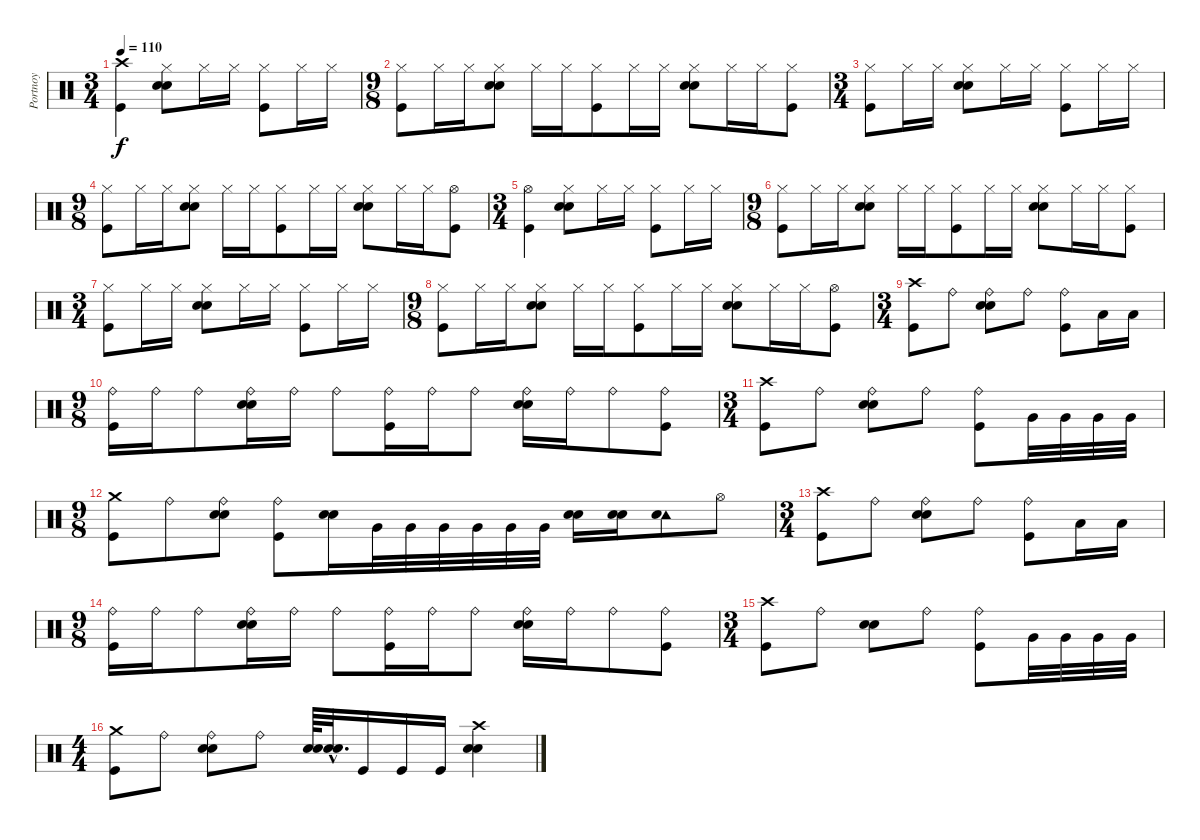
\track ("Portnoy" "Portnoy") {instrument percussion}
\staff {score}
\articulation defaults
\ts (3 4)
\tempo 110
\clef neutral
\ks c
("Crash high (hit)" "Kick (hit)").4{dy f} ("Hi-Hat (closed)" "Snare (hit) 2" "Electric Snare (hit)").8 "Hi-Hat (closed)".16 "Hi-Hat (closed)".16 ("Hi-Hat (closed)" "Kick (hit)").8 "Hi-Hat (closed)".16 "Hi-Hat (closed)".16 |
\ts (9 8)
("Hi-Hat (closed)" "Kick (hit)").8 "Hi-Hat (closed)".16 "Hi-Hat (closed)".16 ("Hi-Hat (closed)" "Snare (hit) 2" "Electric Snare (hit)").8 "Hi-Hat (closed)".16 "Hi-Hat (closed)".16 ("Hi-Hat (closed)" "Kick (hit)").8 "Hi-Hat (closed)".16 "Hi-Hat (closed)".16 ("Hi-Hat (closed)" "Snare (hit) 2" "Electric Snare (hit)").8 "Hi-Hat (closed)".16 "Hi-Hat (closed)".16 ("Hi-Hat (closed)" "Kick (hit)").8 |
\ts (3 4)
("Hi-Hat (closed)" "Kick (hit)").8 "Hi-Hat (closed)".16 "Hi-Hat (closed)".16 ("Hi-Hat (closed)" "Snare (hit) 2" "Electric Snare (hit)").8 "Hi-Hat (closed)".16 "Hi-Hat (closed)".16 ("Hi-Hat (closed)" "Kick (hit)").8 "Hi-Hat (closed)".16 "Hi-Hat (closed)".16 |
\ts (9 8)
("Hi-Hat (closed)" "Kick (hit)").8 "Hi-Hat (closed)".16 "Hi-Hat (closed)".16 ("Hi-Hat (closed)" "Snare (hit) 2" "Electric Snare (hit)").8 "Hi-Hat (closed)".16 "Hi-Hat (closed)".16 ("Hi-Hat (closed)" "Kick (hit)").8 "Hi-Hat (closed)".16 "Hi-Hat (closed)".16 ("Hi-Hat (closed)" "Snare (hit) 2" "Electric Snare (hit)").8 "Hi-Hat (closed)".16 "Hi-Hat (closed)".16 ("Hi-Hat (open)" "Kick (hit)").8 |
\ts (3 4)
("Hi-Hat (open)" "Kick (hit)").4 ("Hi-Hat (closed)" "Snare (hit) 2" "Electric Snare (hit)").8 "Hi-Hat (closed)".16 "Hi-Hat (closed)".16 ("Hi-Hat (closed)" "Kick (hit)").8 "Hi-Hat (closed)".16 "Hi-Hat (closed)".16 |
\ts (9 8)
("Hi-Hat (closed)" "Kick (hit)").8 "Hi-Hat (closed)".16 "Hi-Hat (closed)".16 ("Hi-Hat (closed)" "Snare (hit) 2" "Electric Snare (hit)").8 "Hi-Hat (closed)".16 "Hi-Hat (closed)".16 ("Hi-Hat (closed)" "Kick (hit)").8 "Hi-Hat (closed)".16 "Hi-Hat (closed)".16 ("Hi-Hat (closed)" "Snare (hit) 2" "Electric Snare (hit)").8 "Hi-Hat (closed)".16 "Hi-Hat (closed)".16 ("Hi-Hat (closed)" "Kick (hit)").8 |
\ts (3 4)
("Hi-Hat (closed)" "Kick (hit)").8 "Hi-Hat (closed)".16 "Hi-Hat (closed)".16 ("Hi-Hat (closed)" "Snare (hit) 2" "Electric Snare (hit)").8 "Hi-Hat (closed)".16 "Hi-Hat (closed)".16 ("Hi-Hat (closed)" "Kick (hit)").8 "Hi-Hat (closed)".16 "Hi-Hat (closed)".16 |
\ts (9 8)
("Hi-Hat (closed)" "Kick (hit)").8 "Hi-Hat (closed)".16 "Hi-Hat (closed)".16 ("Hi-Hat (closed)" "Snare (hit) 2" "Electric Snare (hit)").8 "Hi-Hat (closed)".16 "Hi-Hat (closed)".16 ("Hi-Hat (closed)" "Kick (hit)").8 "Hi-Hat (closed)".16 "Hi-Hat (closed)".16 ("Hi-Hat (closed)" "Snare (hit) 2" "Electric Snare (hit)").8 "Hi-Hat (closed)".16 "Hi-Hat (closed)".16 ("Hi-Hat (open)" "Kick (hit)").8 |
\ts (3 4)
("Crash high (hit)" "Kick (hit)").8 "Ride (bell)".8 ("Ride (bell)" "Snare (hit) 2" "Electric Snare (hit)").8 "Ride (bell)".8 ("Ride (bell)" "Kick (hit)").8 "Low Tom (hit)".16 "Low Tom (hit)".16 |
\ts (9 8)
("Ride (bell)" "Kick (hit)").16 "Ride (bell)".16 "Ride (bell)".8 ("Ride (bell)" "Snare (hit) 2" "Electric Snare (hit)").16 "Ride (bell)".16 "Ride (bell)".8 ("Ride (bell)" "Kick (hit)").16 "Ride (bell)".16 "Ride (bell)".8 ("Ride (bell)" "Snare (hit) 2" "Electric Snare (hit)").16 "Ride (bell)".16 "Ride (bell)".8 ("Ride (bell)" "Kick (hit)").8 |
\ts (3 4)
("Crash high (hit)" "Kick (hit)").8 "Ride (bell)".8 ("Ride (bell)" "Snare (hit) 2" "Electric Snare (hit)").8 "Ride (bell)".8 ("Ride (bell)" "Kick (hit)").8 "Very Low Tom (hit)".32 "Very Low Tom (hit)".32 "Very Low Tom (hit)".32 "Very Low Tom (hit)".32 |
\ts (9 8)
("Crash medium (hit)" "Kick (hit)").8 "Ride (bell)".8 ("Ride (bell)" "Snare (hit) 2" "Electric Snare (hit)").8 ("Ride (bell)" "Kick (hit)").8 ("Snare (hit) 2" "Electric Snare (hit)").16 "Very Low Tom (hit)".32 "Very Low Tom (hit)".32 "Very Low Tom (hit)".32 "Very Low Tom (hit)".32 "Very Low Tom (hit)".32 "Very Low Tom (hit)".32 ("Snare (hit) 2" "Electric Snare (hit)").16 ("Snare (hit) 2" "Electric Snare (hit)").16 ("Tambourine (hit)" "Metronome (bell)").8 "Hi-Hat (open)".8 |
\ts (3 4)
("Crash high (hit)" "Kick (hit)").8 "Ride (bell)".8 ("Ride (bell)" "Snare (hit) 2" "Electric Snare (hit)").8 "Ride (bell)".8 ("Ride (bell)" "Kick (hit)").8 "Low Tom (hit)".16 "Low Tom (hit)".16 |
\ts (9 8)
("Ride (bell)" "Kick (hit)").16 "Ride (bell)".16 "Ride (bell)".8 ("Ride (bell)" "Snare (hit) 2" "Electric Snare (hit)").16 "Ride (bell)".16 "Ride (bell)".8 ("Ride (bell)" "Kick (hit)").16 "Ride (bell)".16 "Ride (bell)".8 ("Ride (bell)" "Snare (hit) 2" "Electric Snare (hit)").16 "Ride (bell)".16 "Ride (bell)".8 ("Ride (bell)" "Kick (hit)").8 |
\ts (3 4)
("Crash high (hit)" "Kick (hit)").8 "Ride (bell)".8 ("Snare (hit) 2" "Electric Snare (hit)").8 "Ride (bell)".8 ("Ride (bell)" "Kick (hit)").8 "Very Low Tom (hit)".32 "Very Low Tom (hit)".32 "Very Low Tom (hit)".32 "Very Low Tom (hit)".32 |
\ts (4 4)
("Crash medium (hit)" "Kick (hit)").8 "Ride (bell)".8 ("Ride (bell)" "Snare (hit) 2" "Electric Snare (hit)").8 "Ride (bell)".8 ("Snare (hit) 2" "Electric Snare (hit)").64 ("Snare (hit) 2"{hac} "Electric Snare (hit)"{hac}).32{d} "Kick (hit)".16 "Kick (hit)".16 "Kick (hit)".16 ("Crash high (hit)" "Snare (hit) 2" "Electric Snare (hit)").4
